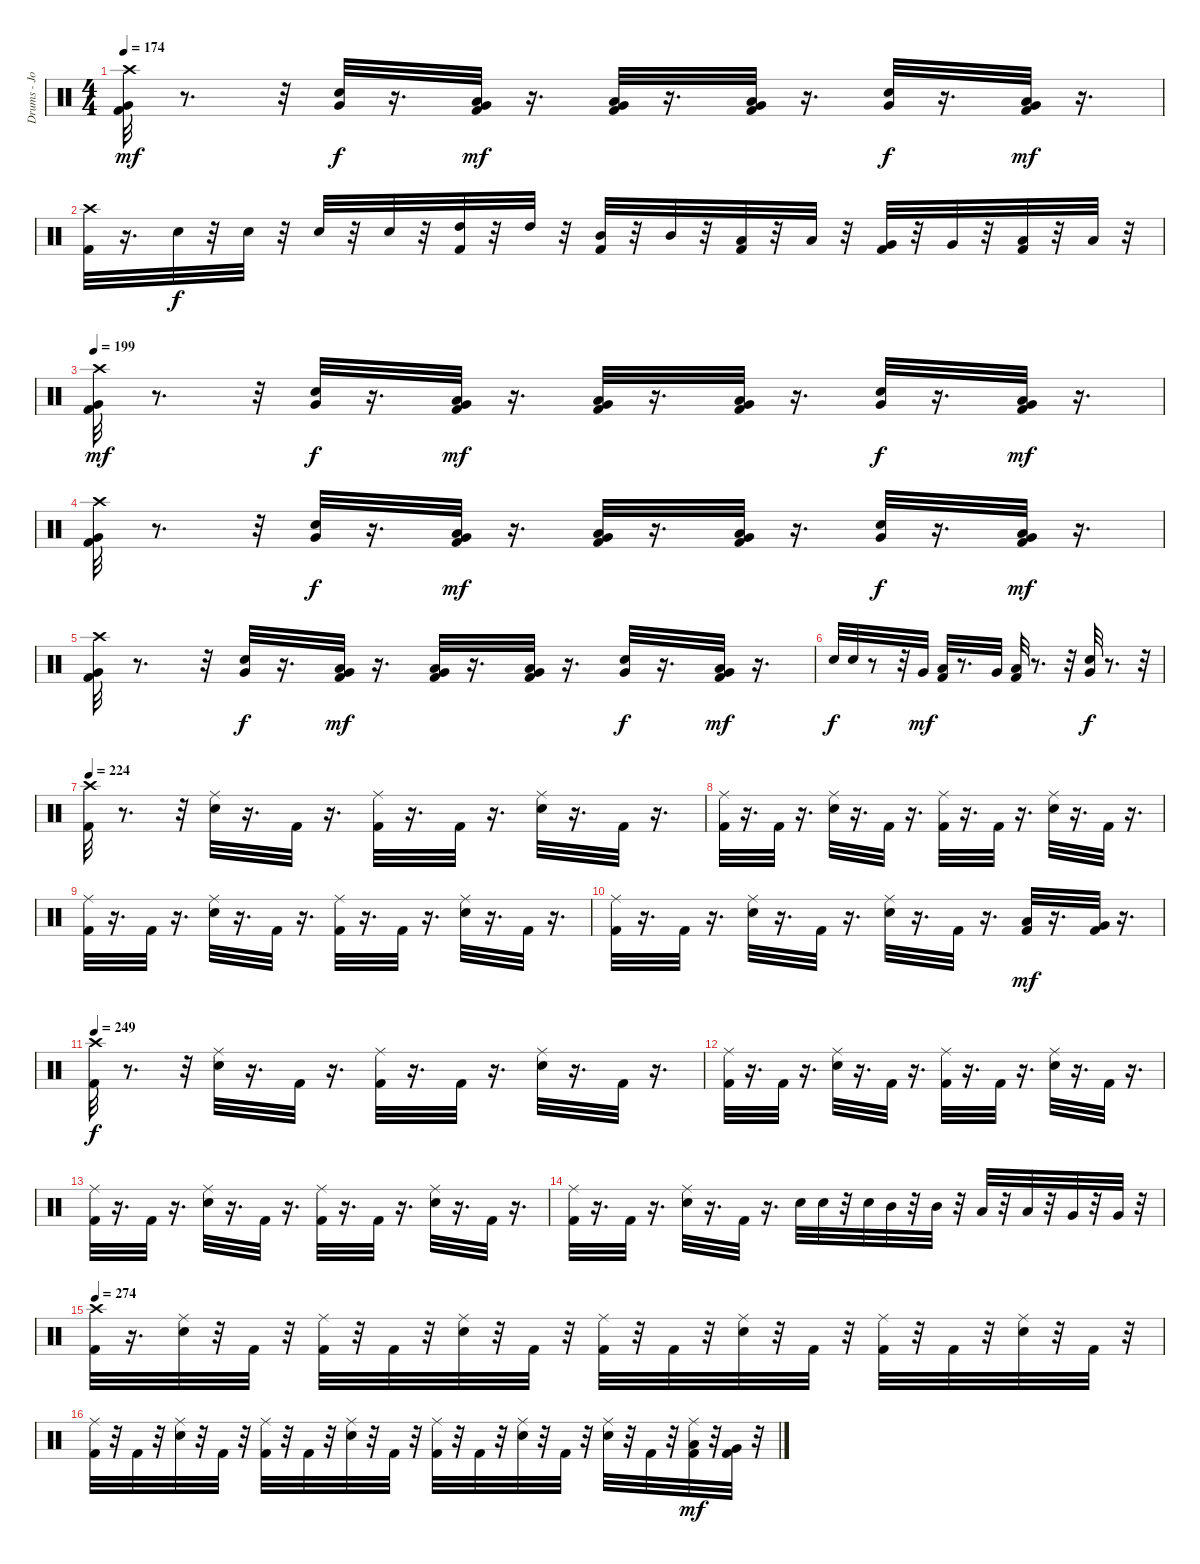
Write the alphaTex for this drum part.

\track ("Drums - John dette" "Drums - Jo") {instrument percussion}
\staff {score}
\articulation defaults
\ts (4 4)
\tempo 174
\clef neutral
\ks c
("Kick (hit) 2" "Very Low Tom (hit)" "Crash high (hit)").32{dy mf} r.8{d} r.32 ("Snare (hit) 2" "Very Low Tom (hit)").32{dy f} r.16{d} ("Kick (hit) 2" "Low Floor Tom (hit)" "Very Low Tom (hit)").32{dy mf} r.16{d} ("Kick (hit) 2" "Low Floor Tom (hit)" "Very Low Tom (hit)").32 r.16{d} ("Kick (hit) 2" "Low Floor Tom (hit)" "Very Low Tom (hit)").32 r.16{d} ("Snare (hit) 2" "Very Low Tom (hit)").32{dy f} r.16{d} ("Kick (hit) 2" "Low Floor Tom (hit)" "Very Low Tom (hit)").32{dy mf} r.16{d} |
("Kick (hit) 2" "Crash high (hit)").32 r.16{d} "Snare (hit) 2".32{dy f} r.32 "Snare (hit) 2".32 r.32 "Snare (hit) 2".32 r.32 "Snare (hit) 2".32 r.32 ("Kick (hit) 2" "High Tom (hit)").32 r.32 "High Tom (hit)".32 r.32 ("Kick (hit) 2" "Mid Tom (hit)").32 r.32 "Mid Tom (hit)".32 r.32 ("Kick (hit) 2" "Low Tom (hit)").32 r.32 "Low Tom (hit)".32 r.32 ("Kick (hit) 2" "Very Low Tom (hit)").32 r.32 "Very Low Tom (hit)".32 r.32 ("Kick (hit) 2" "Low Floor Tom (hit)").32 r.32 "Low Floor Tom (hit)".32 r.32 |
\tempo 199
("Kick (hit) 2" "Very Low Tom (hit)" "Crash high (hit)").32{dy mf} r.8{d} r.32 ("Snare (hit) 2" "Very Low Tom (hit)").32{dy f} r.16{d} ("Kick (hit) 2" "Low Floor Tom (hit)" "Very Low Tom (hit)").32{dy mf} r.16{d} ("Kick (hit) 2" "Low Floor Tom (hit)" "Very Low Tom (hit)").32 r.16{d} ("Kick (hit) 2" "Low Floor Tom (hit)" "Very Low Tom (hit)").32 r.16{d} ("Snare (hit) 2" "Very Low Tom (hit)").32{dy f} r.16{d} ("Kick (hit) 2" "Low Floor Tom (hit)" "Very Low Tom (hit)").32{dy mf} r.16{d} |
("Kick (hit) 2" "Very Low Tom (hit)" "Crash high (hit)").32 r.8{d} r.32 ("Snare (hit) 2" "Very Low Tom (hit)").32{dy f} r.16{d} ("Kick (hit) 2" "Low Floor Tom (hit)" "Very Low Tom (hit)").32{dy mf} r.16{d} ("Kick (hit) 2" "Low Floor Tom (hit)" "Very Low Tom (hit)").32 r.16{d} ("Kick (hit) 2" "Low Floor Tom (hit)" "Very Low Tom (hit)").32 r.16{d} ("Snare (hit) 2" "Very Low Tom (hit)").32{dy f} r.16{d} ("Kick (hit) 2" "Low Floor Tom (hit)" "Very Low Tom (hit)").32{dy mf} r.16{d} |
("Kick (hit) 2" "Very Low Tom (hit)" "Crash high (hit)").32 r.8{d} r.32 ("Snare (hit) 2" "Very Low Tom (hit)").32{dy f} r.16{d} ("Kick (hit) 2" "Low Floor Tom (hit)" "Very Low Tom (hit)").32{dy mf} r.16{d} ("Kick (hit) 2" "Low Floor Tom (hit)" "Very Low Tom (hit)").32 r.16{d} ("Kick (hit) 2" "Low Floor Tom (hit)" "Very Low Tom (hit)").32 r.16{d} ("Snare (hit) 2" "Very Low Tom (hit)").32{dy f} r.16{d} ("Kick (hit) 2" "Low Floor Tom (hit)" "Very Low Tom (hit)").32{dy mf} r.16{d} |
"Snare (hit) 2".32{dy f} "Snare (hit) 2".32 r.8 r.32 "Very Low Tom (hit)".32{dy mf} ("Kick (hit) 2" "Low Floor Tom (hit)").32 r.8{d} "Very Low Tom (hit)".32 ("Kick (hit) 2" "Low Floor Tom (hit)").32 r.8{d} r.32 ("Snare (hit) 2" "Very Low Tom (hit)").32{dy f} r.8{d} r.32 |
\tempo 224
("Kick (hit) 2" "Crash high (hit)").32 r.8{d} r.32 ("Snare (hit) 2" "Ride (middle)").32 r.16{d} "Kick (hit) 2".32 r.16{d} ("Kick (hit) 2" "Ride (middle)").32 r.16{d} "Kick (hit) 2".32 r.16{d} ("Snare (hit) 2" "Ride (middle)").32 r.16{d} "Kick (hit) 2".32 r.16{d} |
("Kick (hit) 2" "Ride (middle)").32 r.16{d} "Kick (hit) 2".32 r.16{d} ("Snare (hit) 2" "Ride (middle)").32 r.16{d} "Kick (hit) 2".32 r.16{d} ("Kick (hit) 2" "Ride (middle)").32 r.16{d} "Kick (hit) 2".32 r.16{d} ("Snare (hit) 2" "Ride (middle)").32 r.16{d} "Kick (hit) 2".32 r.16{d} |
("Kick (hit) 2" "Ride (middle)").32 r.16{d} "Kick (hit) 2".32 r.16{d} ("Snare (hit) 2" "Ride (middle)").32 r.16{d} "Kick (hit) 2".32 r.16{d} ("Kick (hit) 2" "Ride (middle)").32 r.16{d} "Kick (hit) 2".32 r.16{d} ("Snare (hit) 2" "Ride (middle)").32 r.16{d} "Kick (hit) 2".32 r.16{d} |
("Kick (hit) 2" "Ride (middle)").32 r.16{d} "Kick (hit) 2".32 r.16{d} ("Snare (hit) 2" "Ride (middle)").32 r.16{d} "Kick (hit) 2".32 r.16{d} ("Snare (hit) 2" "Ride (middle)").32 r.16{d} "Kick (hit) 2".32 r.16{d} ("Kick (hit) 2" "Low Tom (hit)").32{dy mf} r.16{d} ("Kick (hit) 2" "Very Low Tom (hit)").32 r.16{d} |
\tempo 249
("Kick (hit) 2" "Crash high (hit)").32{dy f} r.8{d} r.32 ("Snare (hit) 2" "Ride (middle)").32 r.16{d} "Kick (hit) 2".32 r.16{d} ("Kick (hit) 2" "Ride (middle)").32 r.16{d} "Kick (hit) 2".32 r.16{d} ("Snare (hit) 2" "Ride (middle)").32 r.16{d} "Kick (hit) 2".32 r.16{d} |
("Kick (hit) 2" "Ride (middle)").32 r.16{d} "Kick (hit) 2".32 r.16{d} ("Snare (hit) 2" "Ride (middle)").32 r.16{d} "Kick (hit) 2".32 r.16{d} ("Kick (hit) 2" "Ride (middle)").32 r.16{d} "Kick (hit) 2".32 r.16{d} ("Snare (hit) 2" "Ride (middle)").32 r.16{d} "Kick (hit) 2".32 r.16{d} |
("Kick (hit) 2" "Ride (middle)").32 r.16{d} "Kick (hit) 2".32 r.16{d} ("Snare (hit) 2" "Ride (middle)").32 r.16{d} "Kick (hit) 2".32 r.16{d} ("Kick (hit) 2" "Ride (middle)").32 r.16{d} "Kick (hit) 2".32 r.16{d} ("Snare (hit) 2" "Ride (middle)").32 r.16{d} "Kick (hit) 2".32 r.16{d} |
("Kick (hit) 2" "Ride (middle)").32 r.16{d} "Kick (hit) 2".32 r.16{d} ("Snare (hit) 2" "Ride (middle)").32 r.16{d} "Kick (hit) 2".32 r.16{d} "Snare (hit) 2".32 "Snare (hit) 2".32 r.32 "Snare (hit) 2".32 "Mid Tom (hit)".32 r.32 "Mid Tom (hit)".32 r.32 "Low Tom (hit)".32 r.32 "Low Tom (hit)".32 r.32 "Very Low Tom (hit)".32 r.32 "Very Low Tom (hit)".32 r.32 |
\tempo 274
("Kick (hit) 2" "Crash high (hit)").32 r.16{d} ("Snare (hit) 2" "Ride (middle)").32 r.32 "Kick (hit) 2".32 r.32 ("Kick (hit) 2" "Ride (middle)").32 r.32 "Kick (hit) 2".32 r.32 ("Snare (hit) 2" "Ride (middle)").32 r.32 "Kick (hit) 2".32 r.32 ("Kick (hit) 2" "Ride (middle)").32 r.32 "Kick (hit) 2".32 r.32 ("Snare (hit) 2" "Ride (middle)").32 r.32 "Kick (hit) 2".32 r.32 ("Kick (hit) 2" "Ride (middle)").32 r.32 "Kick (hit) 2".32 r.32 ("Snare (hit) 2" "Ride (middle)").32 r.32 "Kick (hit) 2".32 r.32 |
("Kick (hit) 2" "Ride (middle)").32 r.32 "Kick (hit) 2".32 r.32 ("Snare (hit) 2" "Ride (middle)").32 r.32 "Kick (hit) 2".32 r.32 ("Kick (hit) 2" "Ride (middle)").32 r.32 "Kick (hit) 2".32 r.32 ("Snare (hit) 2" "Ride (middle)").32 r.32 "Kick (hit) 2".32 r.32 ("Kick (hit) 2" "Ride (middle)").32 r.32 "Kick (hit) 2".32 r.32 ("Snare (hit) 2" "Ride (middle)").32 r.32 "Kick (hit) 2".32 r.32 ("Snare (hit) 2" "Ride (middle)").32 r.32 "Kick (hit) 2".32 r.32 ("Kick (hit) 2" "Low Tom (hit)" "Ride (middle)").32{dy mf} r.32 ("Kick (hit) 2" "Very Low Tom (hit)").32 r.32
